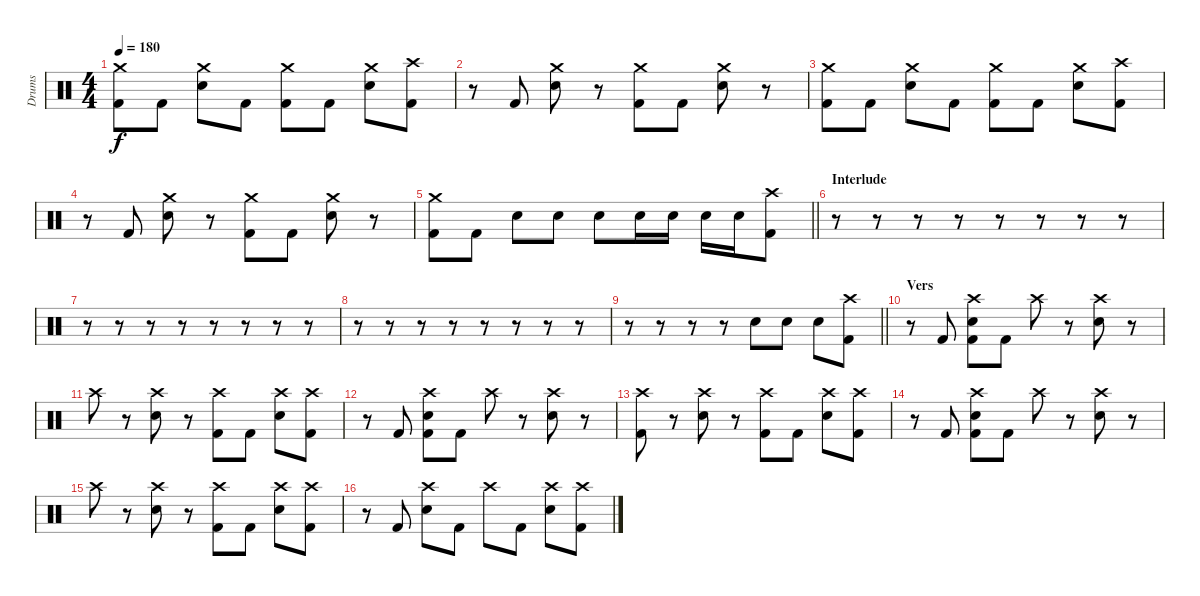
\track ("Drums" "Drums") {instrument percussion}
\staff {score}
\articulation defaults
\ts (4 4)
\tempo 180
\clef neutral
\ks c
("Crash medium (hit)" "Kick (hit) 2").8{dy f} "Kick (hit) 2".8 ("Crash medium (hit)" "Snare (hit) 2").8 "Kick (hit) 2".8 ("Crash medium (hit)" "Kick (hit) 2").8 "Kick (hit) 2".8 ("Crash medium (hit)" "Snare (hit) 2").8 ("Crash high (hit)" "Kick (hit) 2").8 |
r.8 "Kick (hit) 2".8 ("Crash medium (hit)" "Snare (hit) 2").8 r.8 ("Crash medium (hit)" "Kick (hit) 2").8 "Kick (hit) 2".8 ("Crash medium (hit)" "Snare (hit) 2").8 r.8 |
("Crash medium (hit)" "Kick (hit) 2").8 "Kick (hit) 2".8 ("Crash medium (hit)" "Snare (hit) 2").8 "Kick (hit) 2".8 ("Crash medium (hit)" "Kick (hit) 2").8 "Kick (hit) 2".8 ("Crash medium (hit)" "Snare (hit) 2").8 ("Crash high (hit)" "Kick (hit) 2").8 |
r.8 "Kick (hit) 2".8 ("Crash medium (hit)" "Snare (hit) 2").8 r.8 ("Crash medium (hit)" "Kick (hit) 2").8 "Kick (hit) 2".8 ("Crash medium (hit)" "Snare (hit) 2").8 r.8 |
\barLineRight lightlight
("Crash medium (hit)" "Kick (hit) 2").8 "Kick (hit) 2".8 "Snare (hit) 2".8 "Snare (hit) 2".8 "Snare (hit) 2".8 "Snare (hit) 2".16 "Snare (hit) 2".16 "Snare (hit) 2".16 "Snare (hit) 2".16 ("Crash high (hit)" "Kick (hit) 2").8 |
\section ("" "Interlude")
r.8 r.8 r.8 r.8 r.8 r.8 r.8 r.8 |
r.8 r.8 r.8 r.8 r.8 r.8 r.8 r.8 |
r.8 r.8 r.8 r.8 r.8 r.8 r.8 r.8 |
\barLineRight lightlight
r.8 r.8 r.8 r.8 "Snare (hit) 2".8 "Snare (hit) 2".8 "Snare (hit) 2".8 ("Crash high (hit)" "Kick (hit) 2").8 |
\section ("" "Vers")
r.8 "Kick (hit) 2".8 ("Crash high (hit)" "Snare (hit) 2" "Kick (hit) 2").8 "Kick (hit) 2".8 "Crash high (hit)".8 r.8 ("Crash high (hit)" "Snare (hit) 2").8 r.8 |
"Crash high (hit)".8 r.8 ("Crash high (hit)" "Snare (hit) 2").8 r.8 ("Crash high (hit)" "Kick (hit) 2").8 "Kick (hit) 2".8 ("Crash high (hit)" "Snare (hit) 2").8 ("Crash high (hit)" "Kick (hit) 2").8 |
r.8 "Kick (hit) 2".8 ("Crash high (hit)" "Snare (hit) 2" "Kick (hit) 2").8 "Kick (hit) 2".8 "Crash high (hit)".8 r.8 ("Crash high (hit)" "Snare (hit) 2").8 r.8 |
("Crash high (hit)" "Kick (hit) 2").8 r.8 ("Crash high (hit)" "Snare (hit) 2").8 r.8 ("Crash high (hit)" "Kick (hit) 2").8 "Kick (hit) 2".8 ("Crash high (hit)" "Snare (hit) 2").8 ("Crash high (hit)" "Kick (hit) 2").8 |
r.8 "Kick (hit) 2".8 ("Crash high (hit)" "Snare (hit) 2" "Kick (hit) 2").8 "Kick (hit) 2".8 "Crash high (hit)".8 r.8 ("Crash high (hit)" "Snare (hit) 2").8 r.8 |
"Crash high (hit)".8 r.8 ("Crash high (hit)" "Snare (hit) 2").8 r.8 ("Crash high (hit)" "Kick (hit) 2").8 "Kick (hit) 2".8 ("Crash high (hit)" "Snare (hit) 2").8 ("Crash high (hit)" "Kick (hit) 2").8 |
r.8 "Kick (hit) 2".8 ("Crash high (hit)" "Snare (hit) 2").8 "Kick (hit) 2".8 "Crash high (hit)".8 "Kick (hit) 2".8 ("Crash high (hit)" "Snare (hit) 2").8 ("Crash high (hit)" "Kick (hit) 2").8
